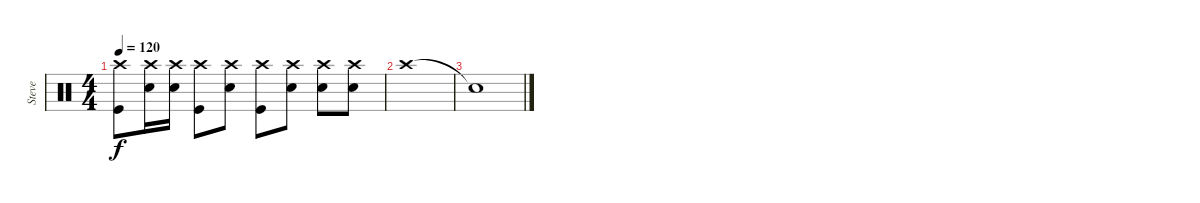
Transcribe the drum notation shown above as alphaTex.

\track ("Steve" "Steve") {instrument percussion}
\staff {score}
\articulation defaults
\ts (4 4)
\tempo 120
\clef neutral
\ks c
("Crash high (hit)" "Kick (hit)").8{dy f} ("Crash high (hit)" "Snare (hit) 2").16 ("Crash high (hit)" "Snare (hit) 2").16 ("Crash high (hit)" "Kick (hit)").8 ("Crash high (hit)" "Snare (hit) 2").8 ("Crash high (hit)" "Kick (hit)").8 ("Crash high (hit)" "Snare (hit) 2").8 ("Crash high (hit)" "Snare (hit) 2").8 ("Crash high (hit)" "Snare (hit) 2").8 |
"Crash high (hit)".1 |
"Snare (hit)"{t}.1
